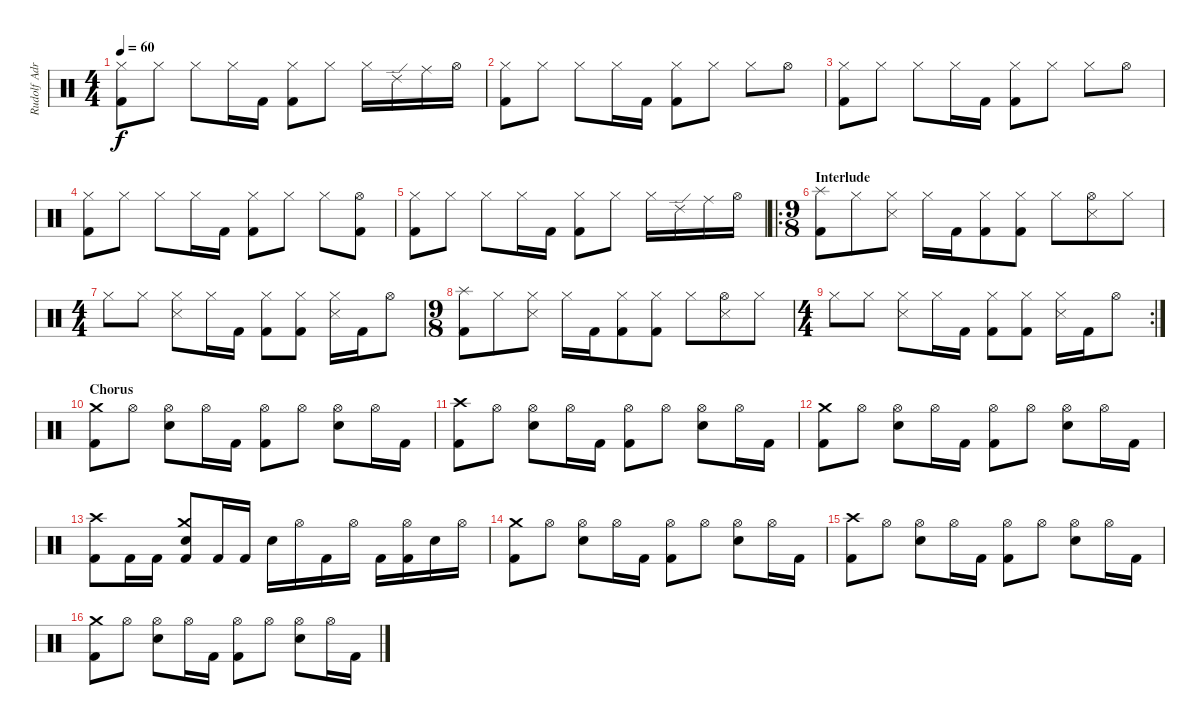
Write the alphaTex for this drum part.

\track ("Rudolf Adrianus Jolie" "Rudolf Adr") {instrument percussion}
\staff {score}
\articulation defaults
\ts (4 4)
\tempo 60
\clef neutral
\ks c
("Hi-Hat (closed)" "Kick (hit) 2").8{dy f} "Hi-Hat (closed)".8 "Hi-Hat (closed)".8 "Hi-Hat (closed)".16 "Kick (hit) 2".16 ("Hi-Hat (closed)" "Kick (hit) 2").8 "Hi-Hat (closed)".8 "Hi-Hat (closed)".16 "Ride (edge) 2".16 "Ride (middle)".16 "Hi-Hat (open)".16 |
("Hi-Hat (closed)" "Kick (hit) 2").8 "Hi-Hat (closed)".8 "Hi-Hat (closed)".8 "Hi-Hat (closed)".16 "Kick (hit) 2".16 ("Hi-Hat (closed)" "Kick (hit) 2").8 "Hi-Hat (closed)".8 "Hi-Hat (closed)".8 "Hi-Hat (open)".8 |
("Hi-Hat (closed)" "Kick (hit) 2").8 "Hi-Hat (closed)".8 "Hi-Hat (closed)".8 "Hi-Hat (closed)".16 "Kick (hit) 2".16 ("Hi-Hat (closed)" "Kick (hit) 2").8 "Hi-Hat (closed)".8 "Hi-Hat (closed)".8 "Hi-Hat (open)".8 |
("Hi-Hat (closed)" "Kick (hit) 2").8 "Hi-Hat (closed)".8 "Hi-Hat (closed)".8 "Hi-Hat (closed)".16 "Kick (hit) 2".16 ("Hi-Hat (closed)" "Kick (hit) 2").8 "Hi-Hat (closed)".8 "Hi-Hat (closed)".8 ("Hi-Hat (open)" "Kick (hit) 2").8 |
("Hi-Hat (closed)" "Kick (hit) 2").8 "Hi-Hat (closed)".8 "Hi-Hat (closed)".8 "Hi-Hat (closed)".16 "Kick (hit) 2".16 ("Hi-Hat (closed)" "Kick (hit) 2").8 "Hi-Hat (closed)".8 "Hi-Hat (closed)".16 "Ride (edge) 2".16 "Ride (middle)".16 "Hi-Hat (open)".16 |
\ro
\ts (9 8)
\section ("" "Interlude")
("Splash (hit)" "Kick (hit) 2").8 "Hi-Hat (closed)".8 ("Hi-Hat (closed)" "Snare (side stick) 3").8 "Hi-Hat (closed)".16 "Kick (hit) 2".16 ("Hi-Hat (closed)" "Kick (hit) 2").8 ("Hi-Hat (closed)" "Kick (hit) 2").8 "Hi-Hat (closed)".8 ("Hi-Hat (open)" "Snare (side stick) 3").8 "Hi-Hat (closed)".8 |
\ts (4 4)
"Hi-Hat (closed)".8 "Hi-Hat (closed)".8 ("Hi-Hat (closed)" "Snare (side stick) 3").8 "Hi-Hat (closed)".16 "Kick (hit) 2".16 ("Hi-Hat (closed)" "Kick (hit) 2").8 ("Hi-Hat (closed)" "Kick (hit) 2").8 ("Hi-Hat (closed)" "Snare (side stick) 3").16 "Kick (hit) 2".16 "Hi-Hat (open)".8 |
\ts (9 8)
("Splash (hit)" "Kick (hit) 2").8 "Hi-Hat (closed)".8 ("Hi-Hat (closed)" "Snare (side stick) 3").8 "Hi-Hat (closed)".16 "Kick (hit) 2".16 ("Hi-Hat (closed)" "Kick (hit) 2").8 ("Hi-Hat (closed)" "Kick (hit) 2").8 "Hi-Hat (closed)".8 ("Hi-Hat (open)" "Snare (side stick) 3").8 "Hi-Hat (closed)".8 |
\rc 2
\ts (4 4)
"Hi-Hat (closed)".8 "Hi-Hat (closed)".8 ("Hi-Hat (closed)" "Snare (side stick) 3").8 "Hi-Hat (closed)".16 "Kick (hit) 2".16 ("Hi-Hat (closed)" "Kick (hit) 2").8 ("Hi-Hat (closed)" "Kick (hit) 2").8 ("Hi-Hat (closed)" "Snare (side stick) 3").16 "Kick (hit) 2".16 "Hi-Hat (open)".8 |
\section ("" "Chorus")
("Crash medium (hit)" "Kick (hit) 2").8 "Hi-Hat (open)".8 ("Hi-Hat (open)" "Snare (hit) 2").8 "Hi-Hat (open)".16 "Kick (hit) 2".16 ("Hi-Hat (open)" "Kick (hit) 2").8 "Hi-Hat (open)".8 ("Hi-Hat (open)" "Snare (hit) 2").8 "Hi-Hat (open)".16 "Kick (hit) 2".16 |
("Crash high (hit)" "Kick (hit) 2").8 "Hi-Hat (open)".8 ("Hi-Hat (open)" "Snare (hit) 2").8 "Hi-Hat (open)".16 "Kick (hit) 2".16 ("Hi-Hat (open)" "Kick (hit) 2").8 "Hi-Hat (open)".8 ("Hi-Hat (open)" "Snare (hit) 2").8 "Hi-Hat (open)".16 "Kick (hit) 2".16 |
("Crash medium (hit)" "Kick (hit) 2").8 "Hi-Hat (open)".8 ("Hi-Hat (open)" "Snare (hit) 2").8 "Hi-Hat (open)".16 "Kick (hit) 2".16 ("Hi-Hat (open)" "Kick (hit) 2").8 "Hi-Hat (open)".8 ("Hi-Hat (open)" "Snare (hit) 2").8 "Hi-Hat (open)".16 "Kick (hit) 2".16 |
("Crash high (hit)" "Kick (hit) 2").8 "Kick (hit) 2".16 "Kick (hit) 2".16 ("Crash medium (hit)" "Snare (hit) 2" "Kick (hit) 2").8 "Kick (hit) 2".16 "Kick (hit) 2".16 "Snare (hit) 2".16 "Hi-Hat (open)".16 "Kick (hit) 2".16 "Hi-Hat (open)".16 "Kick (hit) 2".16 ("Hi-Hat (open)" "Kick (hit) 2").16 "Snare (hit) 2".16 "Hi-Hat (open)".16 |
("Crash medium (hit)" "Kick (hit) 2").8 "Hi-Hat (open)".8 ("Hi-Hat (open)" "Snare (hit) 2").8 "Hi-Hat (open)".16 "Kick (hit) 2".16 ("Hi-Hat (open)" "Kick (hit) 2").8 "Hi-Hat (open)".8 ("Hi-Hat (open)" "Snare (hit) 2").8 "Hi-Hat (open)".16 "Kick (hit) 2".16 |
("Crash high (hit)" "Kick (hit) 2").8 "Hi-Hat (open)".8 ("Hi-Hat (open)" "Snare (hit) 2").8 "Hi-Hat (open)".16 "Kick (hit) 2".16 ("Hi-Hat (open)" "Kick (hit) 2").8 "Hi-Hat (open)".8 ("Hi-Hat (open)" "Snare (hit) 2").8 "Hi-Hat (open)".16 "Kick (hit) 2".16 |
("Crash medium (hit)" "Kick (hit) 2").8 "Hi-Hat (open)".8 ("Hi-Hat (open)" "Snare (hit) 2").8 "Hi-Hat (open)".16 "Kick (hit) 2".16 ("Hi-Hat (open)" "Kick (hit) 2").8 "Hi-Hat (open)".8 ("Hi-Hat (open)" "Snare (hit) 2").8 "Hi-Hat (open)".16 "Kick (hit) 2".16
